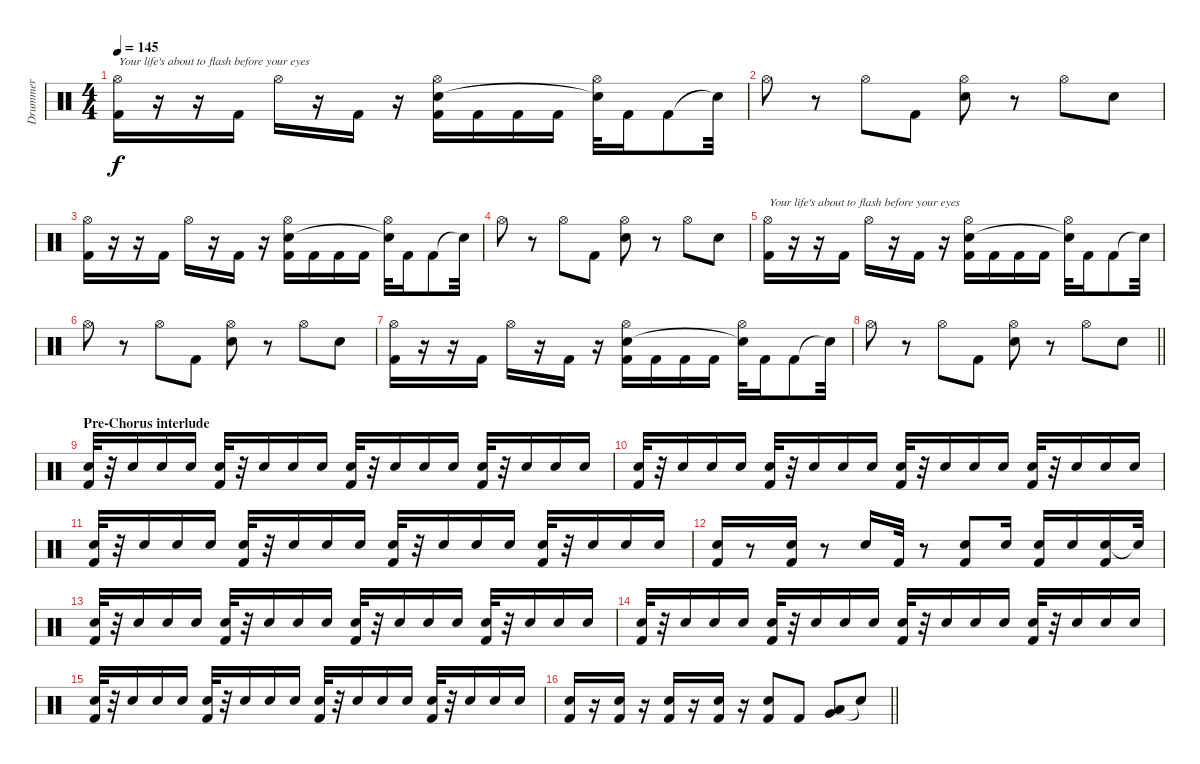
\track ("Drummer" "Drummer") {instrument percussion}
\staff {score}
\articulation defaults
\ts (4 4)
\tempo 145
\clef neutral
\ks c
("Hi-Hat (open)" "Kick (hit) 2").16{txt "Your life's about to flash before your eyes" dy f} r.16 r.16 "Kick (hit) 2".16 "Hi-Hat (open)".16 r.16 "Kick (hit) 2".16 r.16 ("Hi-Hat (open)" "Electric Snare (hit)" "Kick (hit) 2").16 "Kick (hit) 2".16 "Kick (hit) 2".16 "Kick (hit) 2".16 ("Hi-Hat (open)" "Snare (hit)"{t}).32 "Kick (hit) 2".16 "Kick (hit) 2".8 "Snare (hit)"{t}.32 |
"Hi-Hat (open)".8 r.8 "Hi-Hat (open)".8 "Kick (hit) 2".8 ("Hi-Hat (open)" "Electric Snare (hit)").8 r.8 "Hi-Hat (open)".8 "Snare (hit)".8 |
("Hi-Hat (open)" "Kick (hit) 2").16 r.16 r.16 "Kick (hit) 2".16 "Hi-Hat (open)".16 r.16 "Kick (hit) 2".16 r.16 ("Hi-Hat (open)" "Electric Snare (hit)" "Kick (hit) 2").16 "Kick (hit) 2".16 "Kick (hit) 2".16 "Kick (hit) 2".16 ("Hi-Hat (open)" "Snare (hit)"{t}).32 "Kick (hit) 2".16 "Kick (hit) 2".8 "Snare (hit)"{t}.32 |
"Hi-Hat (open)".8 r.8 "Hi-Hat (open)".8 "Kick (hit) 2".8 ("Hi-Hat (open)" "Electric Snare (hit)").8 r.8 "Hi-Hat (open)".8 "Snare (hit)".8 |
("Hi-Hat (open)" "Kick (hit) 2").16{txt "Your life's about to flash before your eyes"} r.16 r.16 "Kick (hit) 2".16 "Hi-Hat (open)".16 r.16 "Kick (hit) 2".16 r.16 ("Hi-Hat (open)" "Electric Snare (hit)" "Kick (hit) 2").16 "Kick (hit) 2".16 "Kick (hit) 2".16 "Kick (hit) 2".16 ("Hi-Hat (open)" "Snare (hit)"{t}).32 "Kick (hit) 2".16 "Kick (hit) 2".8 "Snare (hit)"{t}.32 |
"Hi-Hat (open)".8 r.8 "Hi-Hat (open)".8 "Kick (hit) 2".8 ("Hi-Hat (open)" "Electric Snare (hit)").8 r.8 "Hi-Hat (open)".8 "Snare (hit)".8 |
("Hi-Hat (open)" "Kick (hit) 2").16 r.16 r.16 "Kick (hit) 2".16 "Hi-Hat (open)".16 r.16 "Kick (hit) 2".16 r.16 ("Hi-Hat (open)" "Electric Snare (hit)" "Kick (hit) 2").16 "Kick (hit) 2".16 "Kick (hit) 2".16 "Kick (hit) 2".16 ("Hi-Hat (open)" "Snare (hit)"{t}).32 "Kick (hit) 2".16 "Kick (hit) 2".8 "Snare (hit)"{t}.32 |
\barLineRight lightlight "Hi-Hat (open)".8
r.8 "Hi-Hat (open)".8 "Kick (hit) 2".8 ("Hi-Hat (open)" "Electric Snare (hit)").8 r.8 "Hi-Hat (open)".8 "Snare (hit)".8 |
\section ("" "Pre-Chorus interlude")
("Electric Snare (hit)" "Kick (hit) 2").32 r.32 "Electric Snare (hit)".16 "Electric Snare (hit)".16 "Electric Snare (hit)".16 ("Electric Snare (hit)" "Kick (hit) 2").32 r.32 "Electric Snare (hit)".16 "Electric Snare (hit)".16 "Electric Snare (hit)".16 ("Electric Snare (hit)" "Kick (hit) 2").32 r.32 "Electric Snare (hit)".16 "Electric Snare (hit)".16 "Electric Snare (hit)".16 ("Electric Snare (hit)" "Kick (hit) 2").32 r.32 "Electric Snare (hit)".16 "Electric Snare (hit)".16 "Electric Snare (hit)".16 |
("Electric Snare (hit)" "Kick (hit) 2").32 r.32 "Electric Snare (hit)".16 "Electric Snare (hit)".16 "Electric Snare (hit)".16 ("Electric Snare (hit)" "Kick (hit) 2").32 r.32 "Electric Snare (hit)".16 "Electric Snare (hit)".16 "Electric Snare (hit)".16 ("Electric Snare (hit)" "Kick (hit) 2").32 r.32 "Electric Snare (hit)".16 "Electric Snare (hit)".16 "Electric Snare (hit)".16 ("Electric Snare (hit)" "Kick (hit) 2").32 r.32 "Electric Snare (hit)".16 "Electric Snare (hit)".16 "Electric Snare (hit)".16 |
("Electric Snare (hit)" "Kick (hit) 2").32 r.32 "Electric Snare (hit)".16 "Electric Snare (hit)".16 "Electric Snare (hit)".16 ("Electric Snare (hit)" "Kick (hit) 2").32 r.32 "Electric Snare (hit)".16 "Electric Snare (hit)".16 "Electric Snare (hit)".16 ("Electric Snare (hit)" "Kick (hit) 2").32 r.32 "Electric Snare (hit)".16 "Electric Snare (hit)".16 "Electric Snare (hit)".16 ("Electric Snare (hit)" "Kick (hit) 2").32 r.32 "Electric Snare (hit)".16 "Electric Snare (hit)".16 "Electric Snare (hit)".16 |
("Electric Snare (hit)" "Kick (hit) 2").16 r.8 ("Electric Snare (hit)" "Kick (hit) 2").16 r.8 "Electric Snare (hit)".16 "Kick (hit) 2".32 r.8 ("Electric Snare (hit)" "Kick (hit) 2").8 "Electric Snare (hit)".16 ("Electric Snare (hit)" "Kick (hit) 2").16 "Electric Snare (hit)".16 ("Electric Snare (hit)" "Kick (hit) 2").16 "Snare (hit)"{t}.32 |
("Electric Snare (hit)" "Kick (hit) 2").32 r.32 "Electric Snare (hit)".16 "Electric Snare (hit)".16 "Electric Snare (hit)".16 ("Electric Snare (hit)" "Kick (hit) 2").32 r.32 "Electric Snare (hit)".16 "Electric Snare (hit)".16 "Electric Snare (hit)".16 ("Electric Snare (hit)" "Kick (hit) 2").32 r.32 "Electric Snare (hit)".16 "Electric Snare (hit)".16 "Electric Snare (hit)".16 ("Electric Snare (hit)" "Kick (hit) 2").32 r.32 "Electric Snare (hit)".16 "Electric Snare (hit)".16 "Electric Snare (hit)".16 |
("Electric Snare (hit)" "Kick (hit) 2").32 r.32 "Electric Snare (hit)".16 "Electric Snare (hit)".16 "Electric Snare (hit)".16 ("Electric Snare (hit)" "Kick (hit) 2").32 r.32 "Electric Snare (hit)".16 "Electric Snare (hit)".16 "Electric Snare (hit)".16 ("Electric Snare (hit)" "Kick (hit) 2").32 r.32 "Electric Snare (hit)".16 "Electric Snare (hit)".16 "Electric Snare (hit)".16 ("Electric Snare (hit)" "Kick (hit) 2").32 r.32 "Electric Snare (hit)".16 "Electric Snare (hit)".16 "Electric Snare (hit)".16 |
("Electric Snare (hit)" "Kick (hit) 2").32 r.32 "Electric Snare (hit)".16 "Electric Snare (hit)".16 "Electric Snare (hit)".16 ("Electric Snare (hit)" "Kick (hit) 2").32 r.32 "Electric Snare (hit)".16 "Electric Snare (hit)".16 "Electric Snare (hit)".16 ("Electric Snare (hit)" "Kick (hit) 2").32 r.32 "Electric Snare (hit)".16 "Electric Snare (hit)".16 "Electric Snare (hit)".16 ("Electric Snare (hit)" "Kick (hit) 2").32 r.32 "Electric Snare (hit)".16 "Electric Snare (hit)".16 "Electric Snare (hit)".16 |
\barLineRight lightlight
("Electric Snare (hit)" "Kick (hit) 2").16 r.16 ("Electric Snare (hit)" "Kick (hit) 2").16 r.16 ("Electric Snare (hit)" "Kick (hit) 2").16 r.16 ("Electric Snare (hit)" "Kick (hit) 2").16 r.16 ("Electric Snare (hit)" "Kick (hit) 2").8 "Kick (hit) 2".8 ("Very Low Tom (hit)" "Low Floor Tom (hit)").8 "Snare (hit)"{t}.8
